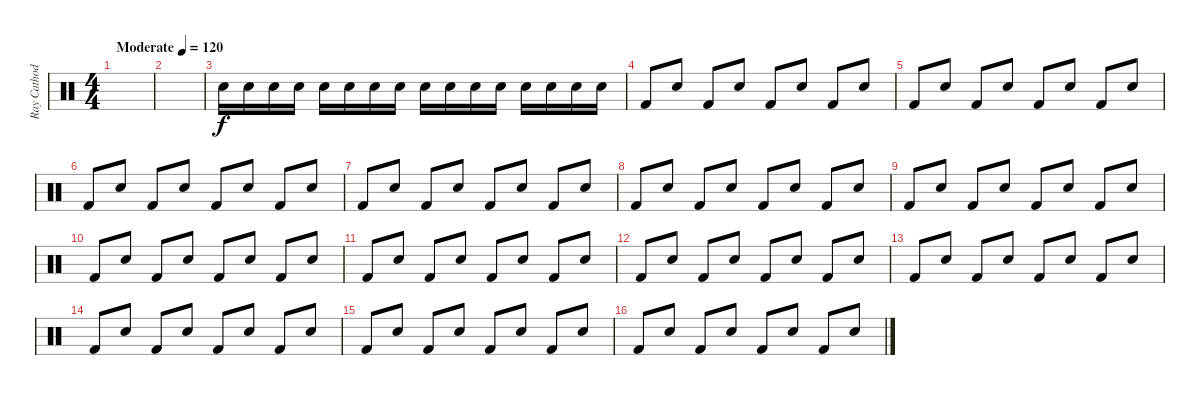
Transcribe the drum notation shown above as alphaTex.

\track ("Ray Cathode" "Ray Cathod") {instrument percussion}
\staff {score}
\articulation defaults
\ts (4 4)
\tempo (120 "Moderate")
\clef neutral
\ks c
|
|
"Snare (hit)".16 "Snare (hit)".16 "Snare (hit)".16 "Snare (hit)".16 "Snare (hit)".16 "Snare (hit)".16 "Snare (hit)".16 "Snare (hit)".16 "Snare (hit)".16 "Snare (hit)".16 "Snare (hit)".16 "Snare (hit)".16 "Snare (hit) 2".16 "Snare (hit) 2".16 "Snare (hit) 2".16 "Snare (hit) 2".16 |
"Kick (hit) 2".8 "Snare (hit) 2".8 "Kick (hit) 2".8 "Snare (hit) 2".8 "Kick (hit) 2".8 "Snare (hit) 2".8 "Kick (hit) 2".8 "Snare (hit) 2".8 |
"Kick (hit) 2".8 "Snare (hit) 2".8 "Kick (hit) 2".8 "Snare (hit) 2".8 "Kick (hit) 2".8 "Snare (hit) 2".8 "Kick (hit) 2".8 "Snare (hit) 2".8 |
"Kick (hit) 2".8 "Snare (hit) 2".8 "Kick (hit) 2".8 "Snare (hit) 2".8 "Kick (hit) 2".8 "Snare (hit) 2".8 "Kick (hit) 2".8 "Snare (hit) 2".8 |
"Kick (hit) 2".8 "Snare (hit) 2".8 "Kick (hit) 2".8 "Snare (hit) 2".8 "Kick (hit) 2".8 "Snare (hit) 2".8 "Kick (hit) 2".8 "Snare (hit) 2".8 |
"Kick (hit) 2".8 "Snare (hit) 2".8 "Kick (hit) 2".8 "Snare (hit) 2".8 "Kick (hit) 2".8 "Snare (hit) 2".8 "Kick (hit) 2".8 "Snare (hit) 2".8 |
"Kick (hit) 2".8 "Snare (hit) 2".8 "Kick (hit) 2".8 "Snare (hit) 2".8 "Kick (hit) 2".8 "Snare (hit) 2".8 "Kick (hit) 2".8 "Snare (hit) 2".8 |
"Kick (hit) 2".8 "Snare (hit) 2".8 "Kick (hit) 2".8 "Snare (hit) 2".8 "Kick (hit) 2".8 "Snare (hit) 2".8 "Kick (hit) 2".8 "Snare (hit) 2".8 |
"Kick (hit) 2".8 "Snare (hit) 2".8 "Kick (hit) 2".8 "Snare (hit) 2".8 "Kick (hit) 2".8 "Snare (hit) 2".8 "Kick (hit) 2".8 "Snare (hit) 2".8 |
"Kick (hit) 2".8 "Snare (hit) 2".8 "Kick (hit) 2".8 "Snare (hit) 2".8 "Kick (hit) 2".8 "Snare (hit) 2".8 "Kick (hit) 2".8 "Snare (hit) 2".8 |
"Kick (hit) 2".8 "Snare (hit) 2".8 "Kick (hit) 2".8 "Snare (hit) 2".8 "Kick (hit) 2".8 "Snare (hit) 2".8 "Kick (hit) 2".8 "Snare (hit) 2".8 |
"Kick (hit) 2".8 "Snare (hit) 2".8 "Kick (hit) 2".8 "Snare (hit) 2".8 "Kick (hit) 2".8 "Snare (hit) 2".8 "Kick (hit) 2".8 "Snare (hit) 2".8 |
"Kick (hit) 2".8 "Snare (hit) 2".8 "Kick (hit) 2".8 "Snare (hit) 2".8 "Kick (hit) 2".8 "Snare (hit) 2".8 "Kick (hit) 2".8 "Snare (hit) 2".8 |
"Kick (hit) 2".8 "Snare (hit) 2".8 "Kick (hit) 2".8 "Snare (hit) 2".8 "Kick (hit) 2".8 "Snare (hit) 2".8 "Kick (hit) 2".8 "Snare (hit) 2".8
